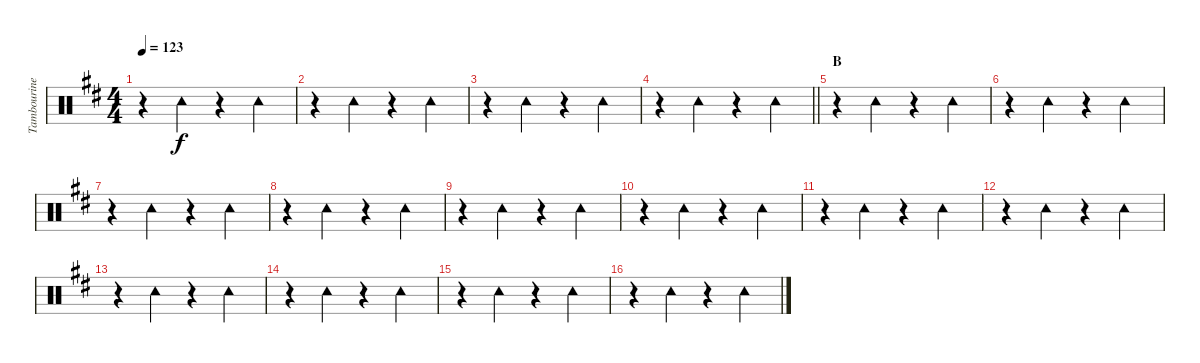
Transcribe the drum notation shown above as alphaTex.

\track ("Tambourine" "Tambourine") {instrument percussion}
\staff {score}
\articulation defaults
\ts (4 4)
\tempo 123
\clef neutral
\ks d
r.4{dy f} "Tambourine (hit)".4 r.4 "Tambourine (hit)".4 |
r.4 "Tambourine (hit)".4 r.4 "Tambourine (hit)".4 |
r.4 "Tambourine (hit)".4 r.4 "Tambourine (hit)".4 |
\barLineRight lightlight
r.4 "Tambourine (hit)".4 r.4 "Tambourine (hit)".4 |
\section ("" "B")
r.4 "Tambourine (hit)".4 r.4 "Tambourine (hit)".4 |
r.4 "Tambourine (hit)".4 r.4 "Tambourine (hit)".4 |
r.4 "Tambourine (hit)".4 r.4 "Tambourine (hit)".4 |
r.4 "Tambourine (hit)".4 r.4 "Tambourine (hit)".4 |
r.4 "Tambourine (hit)".4 r.4 "Tambourine (hit)".4 |
r.4 "Tambourine (hit)".4 r.4 "Tambourine (hit)".4 |
r.4 "Tambourine (hit)".4 r.4 "Tambourine (hit)".4 |
r.4 "Tambourine (hit)".4 r.4 "Tambourine (hit)".4 |
r.4 "Tambourine (hit)".4 r.4 "Tambourine (hit)".4 |
r.4 "Tambourine (hit)".4 r.4 "Tambourine (hit)".4 |
r.4 "Tambourine (hit)".4 r.4 "Tambourine (hit)".4 |
r.4 "Tambourine (hit)".4 r.4 "Tambourine (hit)".4
